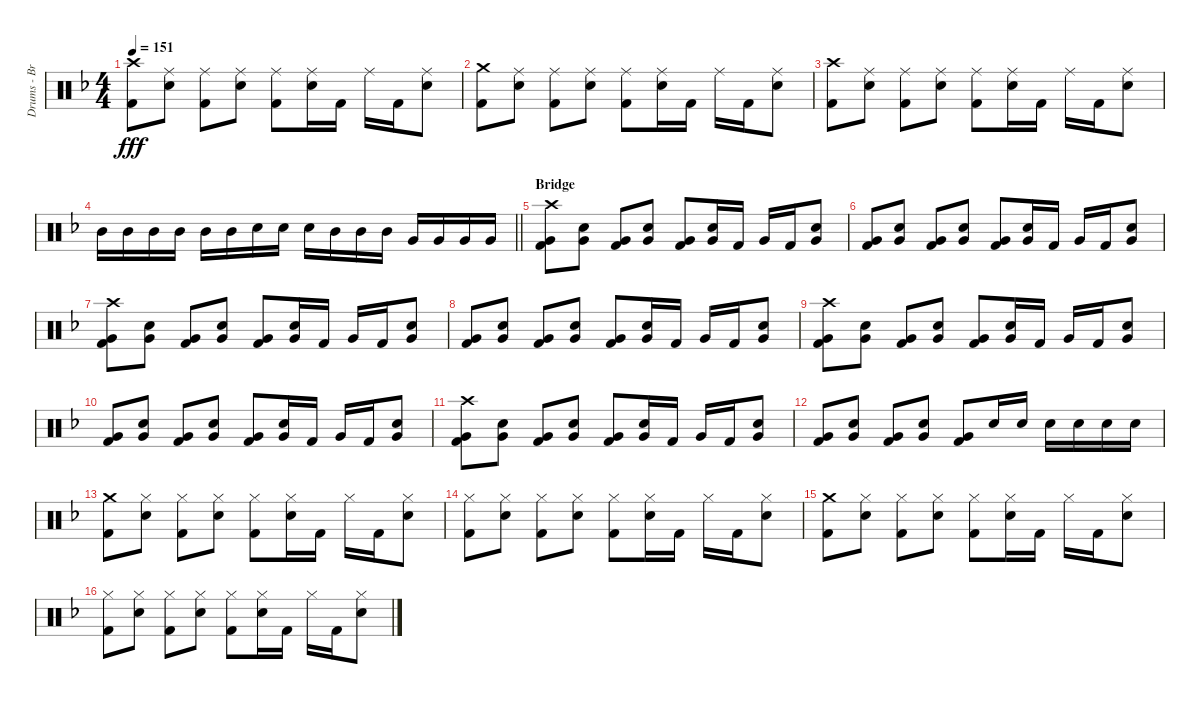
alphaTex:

\track ("Drums - Brooks Wackerman" "Drums - Br") {instrument percussion}
\staff {score}
\articulation defaults
\ts (4 4)
\tempo 151
\clef neutral
\ks f
("Crash high (hit)" "Kick (hit) 2").8{dy fff} ("Ride (middle)" "Snare (hit) 2").8 ("Ride (middle)" "Kick (hit) 2").8 ("Ride (middle)" "Snare (hit) 2").8 ("Ride (middle)" "Kick (hit) 2").8 ("Ride (middle)" "Snare (hit) 2").16 "Kick (hit) 2".16 "Ride (middle)".16 "Kick (hit) 2".16 ("Ride (middle)" "Snare (hit) 2").8 |
("Crash medium (hit)" "Kick (hit) 2").8 ("Ride (middle)" "Snare (hit) 2").8 ("Ride (middle)" "Kick (hit) 2").8 ("Ride (middle)" "Snare (hit) 2").8 ("Ride (middle)" "Kick (hit) 2").8 ("Ride (middle)" "Snare (hit) 2").16 "Kick (hit) 2".16 "Ride (middle)".16 "Kick (hit) 2".16 ("Ride (middle)" "Snare (hit) 2").8 |
("Crash high (hit)" "Kick (hit) 2").8 ("Ride (middle)" "Snare (hit) 2").8 ("Ride (middle)" "Kick (hit) 2").8 ("Ride (middle)" "Snare (hit) 2").8 ("Ride (middle)" "Kick (hit) 2").8 ("Ride (middle)" "Snare (hit) 2").16 "Kick (hit) 2".16 "Ride (middle)".16 "Kick (hit) 2".16 ("Ride (middle)" "Snare (hit) 2").8 |
\barLineRight lightlight "Mid Tom (hit)".16 "Mid Tom (hit)".16 "Mid Tom (hit)".16 "Mid Tom (hit)".16 "Mid Tom (hit)".16 "Mid Tom (hit)".16 "Snare (hit) 2".16 "Snare (hit) 2".16 "Snare (hit) 2".16 "Mid Tom (hit)".16 "Mid Tom (hit)".16 "Mid Tom (hit)".16 "Very Low Tom (hit)".16 "Very Low Tom (hit)".16 "Very Low Tom (hit)".16 "Very Low Tom (hit)".16
|
\section ("" "Bridge")
("Crash high (hit)" "Very Low Tom (hit)" "Kick (hit) 2").8 ("Snare (hit) 2" "Very Low Tom (hit)").8 ("Very Low Tom (hit)" "Kick (hit) 2").8 ("Snare (hit) 2" "Very Low Tom (hit)").8 ("Very Low Tom (hit)" "Kick (hit) 2").8 ("Snare (hit) 2" "Very Low Tom (hit)").16 "Kick (hit) 2".16 "Very Low Tom (hit)".16 "Kick (hit) 2".16 ("Snare (hit) 2" "Very Low Tom (hit)").8 |
("Very Low Tom (hit)" "Kick (hit) 2").8 ("Snare (hit) 2" "Very Low Tom (hit)").8 ("Very Low Tom (hit)" "Kick (hit) 2").8 ("Snare (hit) 2" "Very Low Tom (hit)").8 ("Very Low Tom (hit)" "Kick (hit) 2").8 ("Snare (hit) 2" "Very Low Tom (hit)").16 "Kick (hit) 2".16 "Very Low Tom (hit)".16 "Kick (hit) 2".16 ("Snare (hit) 2" "Very Low Tom (hit)").8 |
("Crash high (hit)" "Very Low Tom (hit)" "Kick (hit) 2").8 ("Snare (hit) 2" "Very Low Tom (hit)").8 ("Very Low Tom (hit)" "Kick (hit) 2").8 ("Snare (hit) 2" "Very Low Tom (hit)").8 ("Very Low Tom (hit)" "Kick (hit) 2").8 ("Snare (hit) 2" "Very Low Tom (hit)").16 "Kick (hit) 2".16 "Very Low Tom (hit)".16 "Kick (hit) 2".16 ("Snare (hit) 2" "Very Low Tom (hit)").8 |
("Very Low Tom (hit)" "Kick (hit) 2").8 ("Snare (hit) 2" "Very Low Tom (hit)").8 ("Very Low Tom (hit)" "Kick (hit) 2").8 ("Snare (hit) 2" "Very Low Tom (hit)").8 ("Very Low Tom (hit)" "Kick (hit) 2").8 ("Snare (hit) 2" "Very Low Tom (hit)").16 "Kick (hit) 2".16 "Very Low Tom (hit)".16 "Kick (hit) 2".16 ("Snare (hit) 2" "Very Low Tom (hit)").8 |
("Crash high (hit)" "Very Low Tom (hit)" "Kick (hit) 2").8 ("Snare (hit) 2" "Very Low Tom (hit)").8 ("Very Low Tom (hit)" "Kick (hit) 2").8 ("Snare (hit) 2" "Very Low Tom (hit)").8 ("Very Low Tom (hit)" "Kick (hit) 2").8 ("Snare (hit) 2" "Very Low Tom (hit)").16 "Kick (hit) 2".16 "Very Low Tom (hit)".16 "Kick (hit) 2".16 ("Snare (hit) 2" "Very Low Tom (hit)").8 |
("Very Low Tom (hit)" "Kick (hit) 2").8 ("Snare (hit) 2" "Very Low Tom (hit)").8 ("Very Low Tom (hit)" "Kick (hit) 2").8 ("Snare (hit) 2" "Very Low Tom (hit)").8 ("Very Low Tom (hit)" "Kick (hit) 2").8 ("Snare (hit) 2" "Very Low Tom (hit)").16 "Kick (hit) 2".16 "Very Low Tom (hit)".16 "Kick (hit) 2".16 ("Snare (hit) 2" "Very Low Tom (hit)").8 |
("Crash high (hit)" "Very Low Tom (hit)" "Kick (hit) 2").8 ("Snare (hit) 2" "Very Low Tom (hit)").8 ("Very Low Tom (hit)" "Kick (hit) 2").8 ("Snare (hit) 2" "Very Low Tom (hit)").8 ("Very Low Tom (hit)" "Kick (hit) 2").8 ("Snare (hit) 2" "Very Low Tom (hit)").16 "Kick (hit) 2".16 "Very Low Tom (hit)".16 "Kick (hit) 2".16 ("Snare (hit) 2" "Very Low Tom (hit)").8 |
("Very Low Tom (hit)" "Kick (hit) 2").8 ("Snare (hit) 2" "Very Low Tom (hit)").8 ("Very Low Tom (hit)" "Kick (hit) 2").8 ("Snare (hit) 2" "Very Low Tom (hit)").8 ("Very Low Tom (hit)" "Kick (hit) 2").8 "Snare (hit) 2".16 "Snare (hit) 2".16 "Snare (hit) 2".16 "Snare (hit) 2".16 "Snare (hit) 2".16 "Snare (hit) 2".16 |
("Crash medium (hit)" "Kick (hit) 2").8 ("Hi-Hat (closed)" "Snare (hit) 2").8 ("Hi-Hat (closed)" "Kick (hit) 2").8 ("Hi-Hat (closed)" "Snare (hit) 2").8 ("Hi-Hat (closed)" "Kick (hit) 2").8 ("Hi-Hat (closed)" "Snare (hit) 2").16 "Kick (hit) 2".16 "Hi-Hat (closed)".16 "Kick (hit) 2".16 ("Hi-Hat (closed)" "Snare (hit) 2").8 |
("Hi-Hat (closed)" "Kick (hit) 2").8 ("Hi-Hat (closed)" "Snare (hit) 2").8 ("Hi-Hat (closed)" "Kick (hit) 2").8 ("Hi-Hat (closed)" "Snare (hit) 2").8 ("Hi-Hat (closed)" "Kick (hit) 2").8 ("Hi-Hat (closed)" "Snare (hit) 2").16 "Kick (hit) 2".16 "Hi-Hat (closed)".16 "Kick (hit) 2".16 ("Hi-Hat (closed)" "Snare (hit) 2").8 |
("Crash medium (hit)" "Kick (hit) 2").8 ("Hi-Hat (closed)" "Snare (hit) 2").8 ("Hi-Hat (closed)" "Kick (hit) 2").8 ("Hi-Hat (closed)" "Snare (hit) 2").8 ("Hi-Hat (closed)" "Kick (hit) 2").8 ("Hi-Hat (closed)" "Snare (hit) 2").16 "Kick (hit) 2".16 "Hi-Hat (closed)".16 "Kick (hit) 2".16 ("Hi-Hat (closed)" "Snare (hit) 2").8 |
("Hi-Hat (closed)" "Kick (hit) 2").8 ("Hi-Hat (closed)" "Snare (hit) 2").8 ("Hi-Hat (closed)" "Kick (hit) 2").8 ("Hi-Hat (closed)" "Snare (hit) 2").8 ("Hi-Hat (closed)" "Kick (hit) 2").8 ("Hi-Hat (closed)" "Snare (hit) 2").16 "Kick (hit) 2".16 "Hi-Hat (closed)".16 "Kick (hit) 2".16 ("Hi-Hat (closed)" "Snare (hit) 2").8
